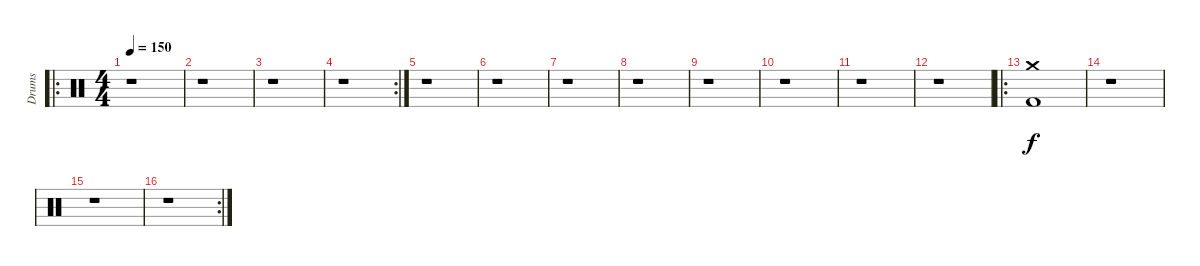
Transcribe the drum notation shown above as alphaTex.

\track ("Drums" "Drums") {instrument percussion}
\staff {score}
\articulation defaults
\ro
\ts (4 4)
\tempo 150
\clef neutral
\ks c
r.1{dy f} |
r.1 |
r.1 |
\rc 2
r.1 |
r.1 |
r.1 |
r.1 |
r.1 |
r.1 |
r.1 |
r.1 |
r.1 |
\ro
("Kick (hit) 2" "Crash medium (hit)").1 |
r.1 |
r.1 |
\rc 2
r.1
